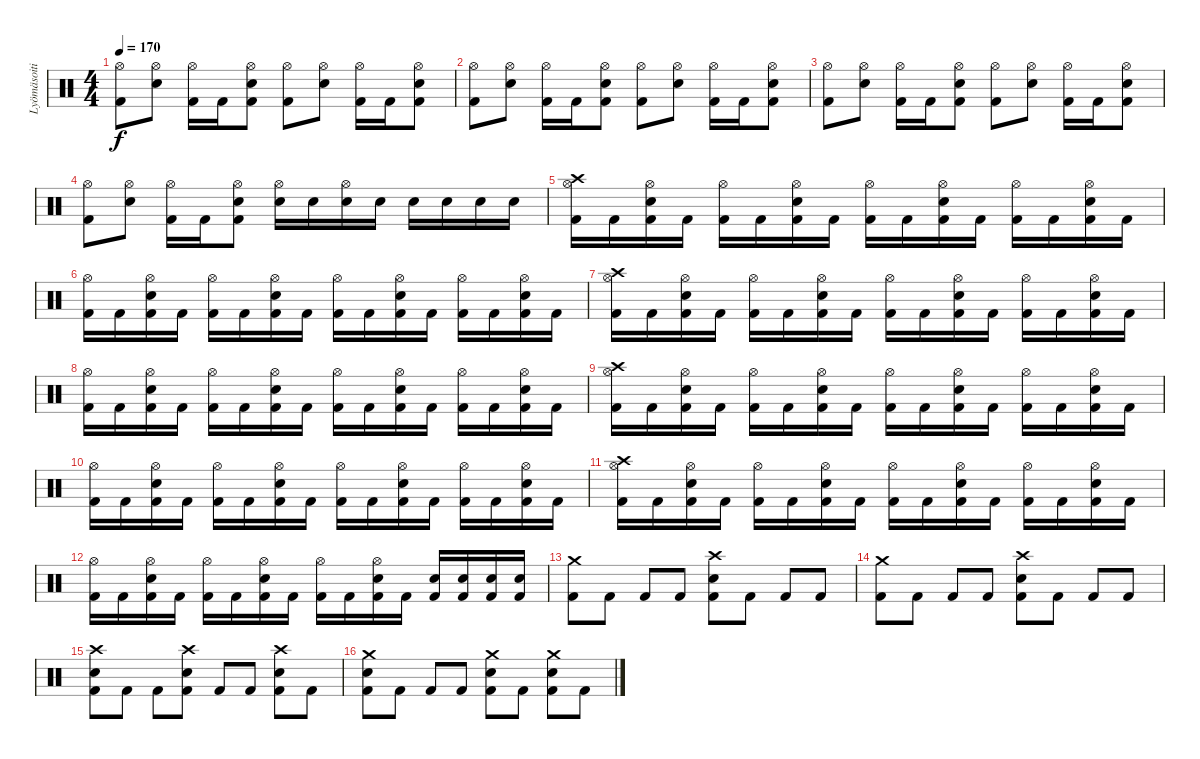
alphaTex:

\track ("Lyömäsoitin" "Lyömäsoiti") {instrument percussion}
\staff {score}
\articulation defaults
\ts (4 4)
\tempo 170
\clef neutral
\ks c
("Kick (hit) 2" "Hi-Hat (open)").8{dy f} ("Snare (hit) 2" "Hi-Hat (open)").8 ("Kick (hit) 2" "Hi-Hat (open)").16 "Kick (hit) 2".16 ("Kick (hit) 2" "Snare (hit) 2" "Hi-Hat (open)").8 ("Kick (hit) 2" "Hi-Hat (open)").8 ("Snare (hit) 2" "Hi-Hat (open)").8 ("Kick (hit) 2" "Hi-Hat (open)").16 "Kick (hit) 2".16 ("Kick (hit) 2" "Snare (hit) 2" "Hi-Hat (open)").8 |
("Kick (hit) 2" "Hi-Hat (open)").8 ("Snare (hit) 2" "Hi-Hat (open)").8 ("Kick (hit) 2" "Hi-Hat (open)").16 "Kick (hit) 2".16 ("Kick (hit) 2" "Snare (hit) 2" "Hi-Hat (open)").8 ("Kick (hit) 2" "Hi-Hat (open)").8 ("Snare (hit) 2" "Hi-Hat (open)").8 ("Kick (hit) 2" "Hi-Hat (open)").16 "Kick (hit) 2".16 ("Kick (hit) 2" "Snare (hit) 2" "Hi-Hat (open)").8 |
("Kick (hit) 2" "Hi-Hat (open)").8 ("Snare (hit) 2" "Hi-Hat (open)").8 ("Kick (hit) 2" "Hi-Hat (open)").16 "Kick (hit) 2".16 ("Kick (hit) 2" "Snare (hit) 2" "Hi-Hat (open)").8 ("Kick (hit) 2" "Hi-Hat (open)").8 ("Snare (hit) 2" "Hi-Hat (open)").8 ("Kick (hit) 2" "Hi-Hat (open)").16 "Kick (hit) 2".16 ("Kick (hit) 2" "Snare (hit) 2" "Hi-Hat (open)").8 |
("Kick (hit) 2" "Hi-Hat (open)").8 ("Snare (hit) 2" "Hi-Hat (open)").8 ("Kick (hit) 2" "Hi-Hat (open)").16 "Kick (hit) 2".16 ("Kick (hit) 2" "Snare (hit) 2" "Hi-Hat (open)").8 ("Snare (hit) 2" "Hi-Hat (open)").16 "Snare (hit) 2".16 ("Snare (hit) 2" "Hi-Hat (open)").16 "Snare (hit) 2".16 "Snare (hit) 2".16 "Snare (hit) 2".16 "Snare (hit) 2".16 "Snare (hit) 2".16 |
("Kick (hit) 2" "Crash high (hit)" "Hi-Hat (open)").16 "Kick (hit) 2".16 ("Kick (hit) 2" "Snare (hit) 2" "Hi-Hat (open)").16 "Kick (hit) 2".16 ("Kick (hit) 2" "Hi-Hat (open)").16 "Kick (hit) 2".16 ("Kick (hit) 2" "Snare (hit) 2" "Hi-Hat (open)").16 "Kick (hit) 2".16 ("Kick (hit) 2" "Hi-Hat (open)").16 "Kick (hit) 2".16 ("Kick (hit) 2" "Snare (hit) 2" "Hi-Hat (open)").16 "Kick (hit) 2".16 ("Kick (hit) 2" "Hi-Hat (open)").16 "Kick (hit) 2".16 ("Kick (hit) 2" "Snare (hit) 2" "Hi-Hat (open)").16 "Kick (hit) 2".16 |
("Kick (hit) 2" "Hi-Hat (open)").16 "Kick (hit) 2".16 ("Kick (hit) 2" "Snare (hit) 2" "Hi-Hat (open)").16 "Kick (hit) 2".16 ("Kick (hit) 2" "Hi-Hat (open)").16 "Kick (hit) 2".16 ("Kick (hit) 2" "Snare (hit) 2" "Hi-Hat (open)").16 "Kick (hit) 2".16 ("Kick (hit) 2" "Hi-Hat (open)").16 "Kick (hit) 2".16 ("Kick (hit) 2" "Snare (hit) 2" "Hi-Hat (open)").16 "Kick (hit) 2".16 ("Kick (hit) 2" "Hi-Hat (open)").16 "Kick (hit) 2".16 ("Kick (hit) 2" "Snare (hit) 2" "Hi-Hat (open)").16 "Kick (hit) 2".16 |
("Kick (hit) 2" "Crash high (hit)" "Hi-Hat (open)").16 "Kick (hit) 2".16 ("Kick (hit) 2" "Snare (hit) 2" "Hi-Hat (open)").16 "Kick (hit) 2".16 ("Kick (hit) 2" "Hi-Hat (open)").16 "Kick (hit) 2".16 ("Kick (hit) 2" "Snare (hit) 2" "Hi-Hat (open)").16 "Kick (hit) 2".16 ("Kick (hit) 2" "Hi-Hat (open)").16 "Kick (hit) 2".16 ("Kick (hit) 2" "Snare (hit) 2" "Hi-Hat (open)").16 "Kick (hit) 2".16 ("Kick (hit) 2" "Hi-Hat (open)").16 "Kick (hit) 2".16 ("Kick (hit) 2" "Snare (hit) 2" "Hi-Hat (open)").16 "Kick (hit) 2".16 |
("Kick (hit) 2" "Hi-Hat (open)").16 "Kick (hit) 2".16 ("Kick (hit) 2" "Snare (hit) 2" "Hi-Hat (open)").16 "Kick (hit) 2".16 ("Kick (hit) 2" "Hi-Hat (open)").16 "Kick (hit) 2".16 ("Kick (hit) 2" "Snare (hit) 2" "Hi-Hat (open)").16 "Kick (hit) 2".16 ("Kick (hit) 2" "Hi-Hat (open)").16 "Kick (hit) 2".16 ("Kick (hit) 2" "Snare (hit) 2" "Hi-Hat (open)").16 "Kick (hit) 2".16 ("Kick (hit) 2" "Hi-Hat (open)").16 "Kick (hit) 2".16 ("Kick (hit) 2" "Snare (hit) 2" "Hi-Hat (open)").16 "Kick (hit) 2".16 |
("Kick (hit) 2" "Crash high (hit)" "Hi-Hat (open)").16 "Kick (hit) 2".16 ("Kick (hit) 2" "Snare (hit) 2" "Hi-Hat (open)").16 "Kick (hit) 2".16 ("Kick (hit) 2" "Hi-Hat (open)").16 "Kick (hit) 2".16 ("Kick (hit) 2" "Snare (hit) 2" "Hi-Hat (open)").16 "Kick (hit) 2".16 ("Kick (hit) 2" "Hi-Hat (open)").16 "Kick (hit) 2".16 ("Kick (hit) 2" "Snare (hit) 2" "Hi-Hat (open)").16 "Kick (hit) 2".16 ("Kick (hit) 2" "Hi-Hat (open)").16 "Kick (hit) 2".16 ("Kick (hit) 2" "Snare (hit) 2" "Hi-Hat (open)").16 "Kick (hit) 2".16 |
("Kick (hit) 2" "Hi-Hat (open)").16 "Kick (hit) 2".16 ("Kick (hit) 2" "Snare (hit) 2" "Hi-Hat (open)").16 "Kick (hit) 2".16 ("Kick (hit) 2" "Hi-Hat (open)").16 "Kick (hit) 2".16 ("Kick (hit) 2" "Snare (hit) 2" "Hi-Hat (open)").16 "Kick (hit) 2".16 ("Kick (hit) 2" "Hi-Hat (open)").16 "Kick (hit) 2".16 ("Kick (hit) 2" "Snare (hit) 2" "Hi-Hat (open)").16 "Kick (hit) 2".16 ("Kick (hit) 2" "Hi-Hat (open)").16 "Kick (hit) 2".16 ("Kick (hit) 2" "Snare (hit) 2" "Hi-Hat (open)").16 "Kick (hit) 2".16 |
("Kick (hit) 2" "Crash high (hit)" "Hi-Hat (open)").16 "Kick (hit) 2".16 ("Kick (hit) 2" "Snare (hit) 2" "Hi-Hat (open)").16 "Kick (hit) 2".16 ("Kick (hit) 2" "Hi-Hat (open)").16 "Kick (hit) 2".16 ("Kick (hit) 2" "Snare (hit) 2" "Hi-Hat (open)").16 "Kick (hit) 2".16 ("Kick (hit) 2" "Hi-Hat (open)").16 "Kick (hit) 2".16 ("Kick (hit) 2" "Snare (hit) 2" "Hi-Hat (open)").16 "Kick (hit) 2".16 ("Kick (hit) 2" "Hi-Hat (open)").16 "Kick (hit) 2".16 ("Kick (hit) 2" "Snare (hit) 2" "Hi-Hat (open)").16 "Kick (hit) 2".16 |
("Kick (hit) 2" "Hi-Hat (open)").16 "Kick (hit) 2".16 ("Kick (hit) 2" "Snare (hit) 2" "Hi-Hat (open)").16 "Kick (hit) 2".16 ("Kick (hit) 2" "Hi-Hat (open)").16 "Kick (hit) 2".16 ("Kick (hit) 2" "Snare (hit) 2" "Hi-Hat (open)").16 "Kick (hit) 2".16 ("Kick (hit) 2" "Hi-Hat (open)").16 "Kick (hit) 2".16 ("Kick (hit) 2" "Snare (hit) 2" "Hi-Hat (open)").16 "Kick (hit) 2".16 ("Kick (hit) 2" "Snare (hit) 2").16 ("Kick (hit) 2" "Snare (hit) 2").16 ("Kick (hit) 2" "Snare (hit) 2").16 ("Kick (hit) 2" "Snare (hit) 2").16 |
("Kick (hit) 2" "Crash medium (hit)").8 "Kick (hit) 2".8 "Kick (hit) 2".8 "Kick (hit) 2".8 ("Kick (hit) 2" "Snare (hit) 2" "Crash high (hit)").8 "Kick (hit) 2".8 "Kick (hit) 2".8 "Kick (hit) 2".8 |
("Kick (hit) 2" "Crash medium (hit)").8 "Kick (hit) 2".8 "Kick (hit) 2".8 "Kick (hit) 2".8 ("Kick (hit) 2" "Snare (hit) 2" "Crash high (hit)").8 "Kick (hit) 2".8 "Kick (hit) 2".8 "Kick (hit) 2".8 |
("Kick (hit) 2" "Snare (hit) 2" "Crash high (hit)").8 "Kick (hit) 2".8 "Kick (hit) 2".8 ("Kick (hit) 2" "Snare (hit) 2" "Crash high (hit)").8 "Kick (hit) 2".8 "Kick (hit) 2".8 ("Kick (hit) 2" "Snare (hit) 2" "Crash high (hit)").8 "Kick (hit) 2".8 |
("Kick (hit) 2" "Snare (hit) 2" "Crash medium (hit)").8 "Kick (hit) 2".8 "Kick (hit) 2".8 "Kick (hit) 2".8 ("Kick (hit) 2" "Snare (hit) 2" "Crash medium (hit)").8 "Kick (hit) 2".8 ("Kick (hit) 2" "Snare (hit) 2" "Crash medium (hit)").8 "Kick (hit) 2".8
